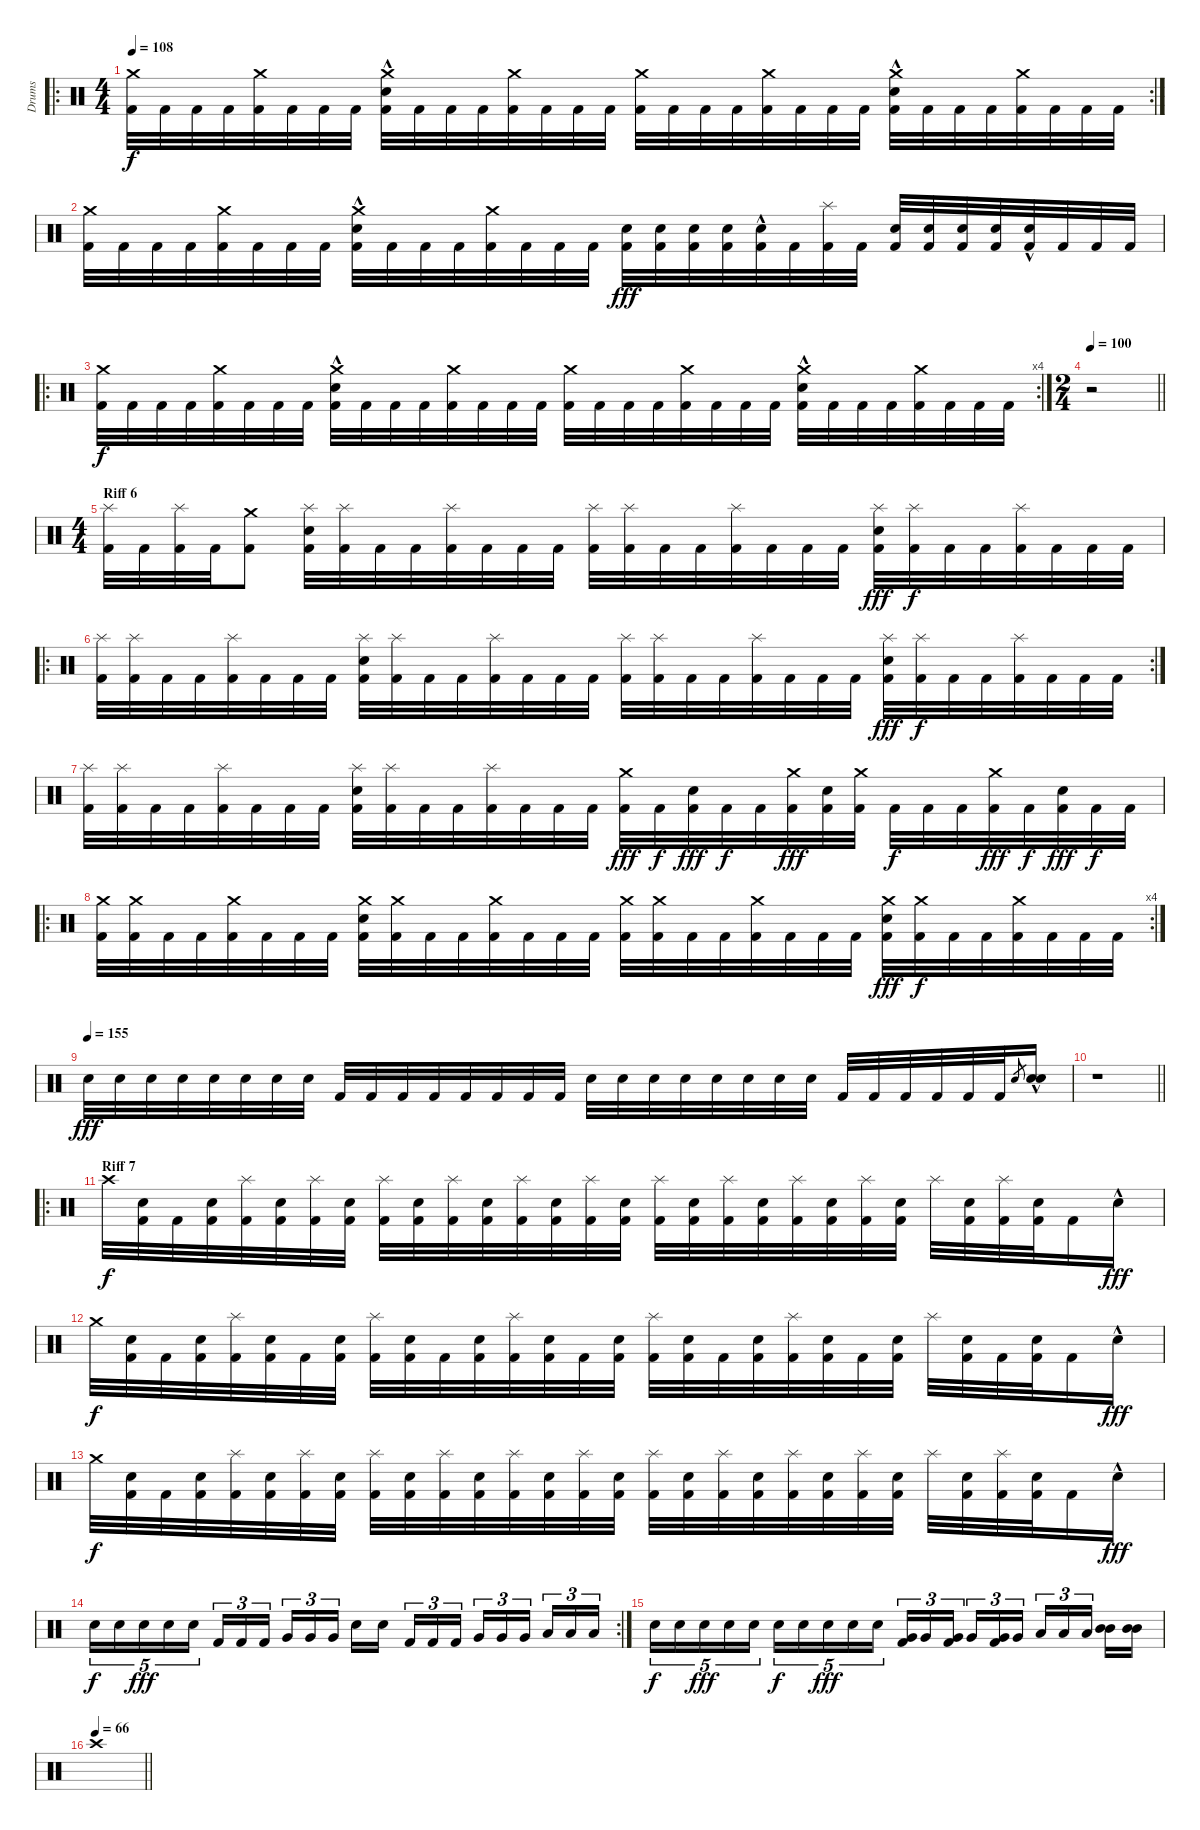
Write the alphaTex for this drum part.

\track ("Drums" "Drums") {instrument percussion}
\staff {score}
\articulation defaults
\ro
\rc 2
\ts (4 4)
\tempo 108
\clef neutral
\ks c
("Crash medium (hit)" "Kick (hit) 2").32{dy f} "Kick (hit) 2".32 "Kick (hit) 2".32 "Kick (hit) 2".32 ("Crash medium (hit)" "Kick (hit) 2").32 "Kick (hit) 2".32 "Kick (hit) 2".32 "Kick (hit) 2".32 ("Crash medium (hit)" "Electric Snare (hit)"{hac} "Kick (hit) 2").32 "Kick (hit) 2".32 "Kick (hit) 2".32 "Kick (hit) 2".32 ("Crash medium (hit)" "Kick (hit) 2").32 "Kick (hit) 2".32 "Kick (hit) 2".32 "Kick (hit) 2".32 ("Crash medium (hit)" "Kick (hit) 2").32 "Kick (hit) 2".32 "Kick (hit) 2".32 "Kick (hit) 2".32 ("Crash medium (hit)" "Kick (hit) 2").32 "Kick (hit) 2".32 "Kick (hit) 2".32 "Kick (hit) 2".32 ("Crash medium (hit)" "Electric Snare (hit)"{hac} "Kick (hit) 2").32 "Kick (hit) 2".32 "Kick (hit) 2".32 "Kick (hit) 2".32 ("Crash medium (hit)" "Kick (hit) 2").32 "Kick (hit) 2".32 "Kick (hit) 2".32 "Kick (hit) 2".32 |
("Crash medium (hit)" "Kick (hit) 2").32 "Kick (hit) 2".32 "Kick (hit) 2".32 "Kick (hit) 2".32 ("Crash medium (hit)" "Kick (hit) 2").32 "Kick (hit) 2".32 "Kick (hit) 2".32 "Kick (hit) 2".32 ("Crash medium (hit)" "Electric Snare (hit)"{hac} "Kick (hit) 2").32 "Kick (hit) 2".32 "Kick (hit) 2".32 "Kick (hit) 2".32 ("Crash medium (hit)" "Kick (hit) 2").32 "Kick (hit) 2".32 "Kick (hit) 2".32 "Kick (hit) 2".32 ("Electric Snare (hit)" "Kick (hit) 2").32{dy fff} ("Electric Snare (hit)" "Kick (hit) 2").32 ("Electric Snare (hit)" "Kick (hit) 2").32 ("Electric Snare (hit)" "Kick (hit) 2").32 ("Electric Snare (hit)"{hac} "Kick (hit) 2").32 "Kick (hit) 2".32 ("Splash (hit)" "Kick (hit) 2").32 "Kick (hit) 2".32 ("Electric Snare (hit)" "Kick (hit) 2").32 ("Electric Snare (hit)" "Kick (hit) 2").32 ("Electric Snare (hit)" "Kick (hit) 2").32 ("Electric Snare (hit)" "Kick (hit) 2").32 ("Electric Snare (hit)"{hac} "Kick (hit) 2").32 "Kick (hit) 2".32 "Kick (hit) 2".32 "Kick (hit) 2".32 |
\ro
\rc 4
("Crash medium (hit)" "Kick (hit) 2").32{dy f} "Kick (hit) 2".32 "Kick (hit) 2".32 "Kick (hit) 2".32 ("Crash medium (hit)" "Kick (hit) 2").32 "Kick (hit) 2".32 "Kick (hit) 2".32 "Kick (hit) 2".32 ("Crash medium (hit)" "Electric Snare (hit)"{hac} "Kick (hit) 2").32 "Kick (hit) 2".32 "Kick (hit) 2".32 "Kick (hit) 2".32 ("Crash medium (hit)" "Kick (hit) 2").32 "Kick (hit) 2".32 "Kick (hit) 2".32 "Kick (hit) 2".32 ("Crash medium (hit)" "Kick (hit) 2").32 "Kick (hit) 2".32 "Kick (hit) 2".32 "Kick (hit) 2".32 ("Crash medium (hit)" "Kick (hit) 2").32 "Kick (hit) 2".32 "Kick (hit) 2".32 "Kick (hit) 2".32 ("Crash medium (hit)" "Electric Snare (hit)"{hac} "Kick (hit) 2").32 "Kick (hit) 2".32 "Kick (hit) 2".32 "Kick (hit) 2".32 ("Crash medium (hit)" "Kick (hit) 2").32 "Kick (hit) 2".32 "Kick (hit) 2".32 "Kick (hit) 2".32 |
\ts (2 4)
\tempo 100
\barLineRight lightlight
r.2 |
\ts (4 4)
\section ("" "Riff 6")
("Splash (hit)" "Kick (hit) 2").32 "Kick (hit) 2".32 ("Splash (hit)" "Kick (hit) 2").32 "Kick (hit) 2".32 ("Crash medium (hit)" "Kick (hit) 2").8 ("Splash (hit)" "Electric Snare (hit)" "Kick (hit) 2").32 ("Splash (hit)" "Kick (hit) 2").32 "Kick (hit) 2".32 "Kick (hit) 2".32 ("Splash (hit)" "Kick (hit) 2").32 "Kick (hit) 2".32 "Kick (hit) 2".32 "Kick (hit) 2".32 ("Splash (hit)" "Kick (hit) 2").32 ("Splash (hit)" "Kick (hit) 2").32 "Kick (hit) 2".32 "Kick (hit) 2".32 ("Splash (hit)" "Kick (hit) 2").32 "Kick (hit) 2".32 "Kick (hit) 2".32 "Kick (hit) 2".32 ("Splash (hit)" "Electric Snare (hit)" "Kick (hit) 2").32{dy fff} ("Splash (hit)" "Kick (hit) 2").32{dy f} "Kick (hit) 2".32 "Kick (hit) 2".32 ("Splash (hit)" "Kick (hit) 2").32 "Kick (hit) 2".32 "Kick (hit) 2".32 "Kick (hit) 2".32 |
\ro
\rc 2
("Splash (hit)" "Kick (hit) 2").32 ("Splash (hit)" "Kick (hit) 2").32 "Kick (hit) 2".32 "Kick (hit) 2".32 ("Splash (hit)" "Kick (hit) 2").32 "Kick (hit) 2".32 "Kick (hit) 2".32 "Kick (hit) 2".32 ("Splash (hit)" "Electric Snare (hit)" "Kick (hit) 2").32 ("Splash (hit)" "Kick (hit) 2").32 "Kick (hit) 2".32 "Kick (hit) 2".32 ("Splash (hit)" "Kick (hit) 2").32 "Kick (hit) 2".32 "Kick (hit) 2".32 "Kick (hit) 2".32 ("Splash (hit)" "Kick (hit) 2").32 ("Splash (hit)" "Kick (hit) 2").32 "Kick (hit) 2".32 "Kick (hit) 2".32 ("Splash (hit)" "Kick (hit) 2").32 "Kick (hit) 2".32 "Kick (hit) 2".32 "Kick (hit) 2".32 ("Splash (hit)" "Electric Snare (hit)" "Kick (hit) 2").32{dy fff} ("Splash (hit)" "Kick (hit) 2").32{dy f} "Kick (hit) 2".32 "Kick (hit) 2".32 ("Splash (hit)" "Kick (hit) 2").32 "Kick (hit) 2".32 "Kick (hit) 2".32 "Kick (hit) 2".32 |
("Splash (hit)" "Kick (hit) 2").32 ("Splash (hit)" "Kick (hit) 2").32 "Kick (hit) 2".32 "Kick (hit) 2".32 ("Splash (hit)" "Kick (hit) 2").32 "Kick (hit) 2".32 "Kick (hit) 2".32 "Kick (hit) 2".32 ("Splash (hit)" "Electric Snare (hit)" "Kick (hit) 2").32 ("Splash (hit)" "Kick (hit) 2").32 "Kick (hit) 2".32 "Kick (hit) 2".32 ("Splash (hit)" "Kick (hit) 2").32 "Kick (hit) 2".32 "Kick (hit) 2".32 "Kick (hit) 2".32 ("Crash medium (hit)" "Kick (hit) 2").32{dy fff} "Kick (hit) 2".32{dy f} ("Electric Snare (hit)" "Kick (hit) 2").32{dy fff} "Kick (hit) 2".32{dy f} "Kick (hit) 2".32 ("Crash medium (hit)" "Kick (hit) 2").32{dy fff} ("Electric Snare (hit)" "Kick (hit) 2").32 ("Crash medium (hit)" "Kick (hit) 2").32 "Kick (hit) 2".32{dy f} "Kick (hit) 2".32 "Kick (hit) 2".32 ("Crash medium (hit)" "Kick (hit) 2").32{dy fff} "Kick (hit) 2".32{dy f} ("Electric Snare (hit)" "Kick (hit) 2").32{dy fff} "Kick (hit) 2".32{dy f} "Kick (hit) 2".32 |
\ro
\rc 4
("Crash medium (hit)" "Kick (hit) 2").32 ("Crash medium (hit)" "Kick (hit) 2").32 "Kick (hit) 2".32 "Kick (hit) 2".32 ("Crash medium (hit)" "Kick (hit) 2").32 "Kick (hit) 2".32 "Kick (hit) 2".32 "Kick (hit) 2".32 ("Crash medium (hit)" "Electric Snare (hit)" "Kick (hit) 2").32 ("Crash medium (hit)" "Kick (hit) 2").32 "Kick (hit) 2".32 "Kick (hit) 2".32 ("Crash medium (hit)" "Kick (hit) 2").32 "Kick (hit) 2".32 "Kick (hit) 2".32 "Kick (hit) 2".32 ("Crash medium (hit)" "Kick (hit) 2").32 ("Crash medium (hit)" "Kick (hit) 2").32 "Kick (hit) 2".32 "Kick (hit) 2".32 ("Crash medium (hit)" "Kick (hit) 2").32 "Kick (hit) 2".32 "Kick (hit) 2".32 "Kick (hit) 2".32 ("Crash medium (hit)" "Electric Snare (hit)" "Kick (hit) 2").32{dy fff} ("Crash medium (hit)" "Kick (hit) 2").32{dy f} "Kick (hit) 2".32 "Kick (hit) 2".32 ("Crash medium (hit)" "Kick (hit) 2").32 "Kick (hit) 2".32 "Kick (hit) 2".32 "Kick (hit) 2".32 |
\tempo (155)
"Electric Snare (hit)".32{dy fff} "Electric Snare (hit)".32 "Electric Snare (hit)".32 "Electric Snare (hit)".32 "Electric Snare (hit)".32 "Electric Snare (hit)".32 "Electric Snare (hit)".32 "Electric Snare (hit)".32 "Kick (hit) 2".32 "Kick (hit) 2".32 "Kick (hit) 2".32 "Kick (hit) 2".32 "Kick (hit) 2".32 "Kick (hit) 2".32 "Kick (hit) 2".32 "Kick (hit) 2".32 "Electric Snare (hit)".32 "Electric Snare (hit)".32 "Electric Snare (hit)".32 "Electric Snare (hit)".32 "Electric Snare (hit)".32 "Electric Snare (hit)".32 "Electric Snare (hit)".32 "Electric Snare (hit)".32 "Kick (hit) 2".32 "Kick (hit) 2".32 "Kick (hit) 2".32 "Kick (hit) 2".32 "Kick (hit) 2".32 "Kick (hit) 2".32 "Electric Snare (hit)".8{gr} ("Electric Snare (hit)" "Electric Snare (hit)"{hac}).16 |
\barLineRight lightlight
r.1 |
\ro
\section ("" "Riff 7")
"Crash high (hit)".32{dy f} ("Electric Snare (hit)" "Kick (hit) 2").32 "Kick (hit) 2".32 ("Electric Snare (hit)" "Kick (hit) 2").32 ("Splash (hit)" "Kick (hit) 2").32 ("Electric Snare (hit)" "Kick (hit) 2").32 ("Splash (hit)" "Kick (hit) 2").32 ("Electric Snare (hit)" "Kick (hit) 2").32 ("Splash (hit)" "Kick (hit) 2").32 ("Electric Snare (hit)" "Kick (hit) 2").32 ("Splash (hit)" "Kick (hit) 2").32 ("Electric Snare (hit)" "Kick (hit) 2").32 ("Splash (hit)" "Kick (hit) 2").32 ("Electric Snare (hit)" "Kick (hit) 2").32 ("Splash (hit)" "Kick (hit) 2").32 ("Electric Snare (hit)" "Kick (hit) 2").32 ("Splash (hit)" "Kick (hit) 2").32 ("Electric Snare (hit)" "Kick (hit) 2").32 ("Splash (hit)" "Kick (hit) 2").32 ("Electric Snare (hit)" "Kick (hit) 2").32 ("Splash (hit)" "Kick (hit) 2").32 ("Electric Snare (hit)" "Kick (hit) 2").32 ("Splash (hit)" "Kick (hit) 2").32 ("Electric Snare (hit)" "Kick (hit) 2").32 "Splash (hit)".32 ("Electric Snare (hit)" "Kick (hit) 2").32 ("Splash (hit)" "Kick (hit) 2").32 ("Electric Snare (hit)" "Kick (hit) 2").32 "Kick (hit) 2".16 "Electric Snare (hit)"{hac}.16{dy fff} |
"Crash medium (hit)".32{dy f} ("Electric Snare (hit)" "Kick (hit) 2").32 "Kick (hit) 2".32 ("Electric Snare (hit)" "Kick (hit) 2").32 ("Splash (hit)" "Kick (hit) 2").32 ("Electric Snare (hit)" "Kick (hit) 2").32 "Kick (hit) 2".32 ("Electric Snare (hit)" "Kick (hit) 2").32 ("Splash (hit)" "Kick (hit) 2").32 ("Electric Snare (hit)" "Kick (hit) 2").32 "Kick (hit) 2".32 ("Electric Snare (hit)" "Kick (hit) 2").32 ("Splash (hit)" "Kick (hit) 2").32 ("Electric Snare (hit)" "Kick (hit) 2").32 "Kick (hit) 2".32 ("Electric Snare (hit)" "Kick (hit) 2").32 ("Splash (hit)" "Kick (hit) 2").32 ("Electric Snare (hit)" "Kick (hit) 2").32 "Kick (hit) 2".32 ("Electric Snare (hit)" "Kick (hit) 2").32 ("Splash (hit)" "Kick (hit) 2").32 ("Electric Snare (hit)" "Kick (hit) 2").32 "Kick (hit) 2".32 ("Electric Snare (hit)" "Kick (hit) 2").32 "Splash (hit)".32 ("Electric Snare (hit)" "Kick (hit) 2").32 "Kick (hit) 2".32 ("Electric Snare (hit)" "Kick (hit) 2").32 "Kick (hit) 2".16 "Electric Snare (hit)"{hac}.16{dy fff} |
"Crash medium (hit)".32{dy f} ("Electric Snare (hit)" "Kick (hit) 2").32 "Kick (hit) 2".32 ("Electric Snare (hit)" "Kick (hit) 2").32 ("Splash (hit)" "Kick (hit) 2").32 ("Electric Snare (hit)" "Kick (hit) 2").32 ("Splash (hit)" "Kick (hit) 2").32 ("Electric Snare (hit)" "Kick (hit) 2").32 ("Splash (hit)" "Kick (hit) 2").32 ("Electric Snare (hit)" "Kick (hit) 2").32 ("Splash (hit)" "Kick (hit) 2").32 ("Electric Snare (hit)" "Kick (hit) 2").32 ("Splash (hit)" "Kick (hit) 2").32 ("Electric Snare (hit)" "Kick (hit) 2").32 ("Splash (hit)" "Kick (hit) 2").32 ("Electric Snare (hit)" "Kick (hit) 2").32 ("Splash (hit)" "Kick (hit) 2").32 ("Electric Snare (hit)" "Kick (hit) 2").32 ("Splash (hit)" "Kick (hit) 2").32 ("Electric Snare (hit)" "Kick (hit) 2").32 ("Splash (hit)" "Kick (hit) 2").32 ("Electric Snare (hit)" "Kick (hit) 2").32 ("Splash (hit)" "Kick (hit) 2").32 ("Electric Snare (hit)" "Kick (hit) 2").32 "Splash (hit)".32 ("Electric Snare (hit)" "Kick (hit) 2").32 ("Splash (hit)" "Kick (hit) 2").32 ("Electric Snare (hit)" "Kick (hit) 2").32 "Kick (hit) 2".16 "Electric Snare (hit)"{hac}.16{dy fff} |
\rc 2 "Electric Snare (hit)".16{tu (5 4) dy f} "Electric Snare (hit)".16{tu (5 4)} "Electric Snare (hit)".16{tu (5 4) dy fff} "Electric Snare (hit)".16{tu (5 4)} "Electric Snare (hit)".16{tu (5 4)} "Kick (hit) 2".16{tu (3 2)} "Kick (hit) 2".16{tu (3 2)} "Kick (hit) 2".16{tu (3 2) beam splitsecondary} "Very Low Tom (hit)".16{tu (3 2)} "Very Low Tom (hit)".16{tu (3 2)} "Very Low Tom (hit)".16{tu (3 2)} "Electric Snare (hit)".16 "Electric Snare (hit)".16{beam splitsecondary} "Kick (hit) 2".16{tu (3 2)} "Kick (hit) 2".16{tu (3 2)} "Kick (hit) 2".16{tu (3 2)} "Very Low Tom (hit)".16{tu (3 2)} "Very Low Tom (hit)".16{tu (3 2)} "Very Low Tom (hit)".16{tu (3 2) beam splitsecondary} "Low Tom (hit)".16{tu (3 2)} "Low Tom (hit)".16{tu (3 2)} "Low Tom (hit)".16{tu (3 2)}
|
"Electric Snare (hit)".16{tu (5 4) dy f} "Electric Snare (hit)".16{tu (5 4)} "Electric Snare (hit)".16{tu (5 4) dy fff} "Electric Snare (hit)".16{tu (5 4)} "Electric Snare (hit)".16{tu (5 4)} "Electric Snare (hit)".16{tu (5 4) dy f} "Electric Snare (hit)".16{tu (5 4)} "Electric Snare (hit)".16{tu (5 4) dy fff} "Electric Snare (hit)".16{tu (5 4)} "Electric Snare (hit)".16{tu (5 4)} ("Very Low Tom (hit)" "Kick (hit) 2").16{tu (3 2)} "Very Low Tom (hit)".16{tu (3 2)} ("Very Low Tom (hit)" "Kick (hit) 2").16{tu (3 2) beam splitsecondary} "Very Low Tom (hit)".16{tu (3 2)} ("Very Low Tom (hit)" "Kick (hit) 2").16{tu (3 2)} "Very Low Tom (hit)".16{tu (3 2)} "Low Tom (hit)".16{tu (3 2)} "Low Tom (hit)".16{tu (3 2)} "Low Tom (hit)".16{tu (3 2) beam splitsecondary} ("Mid Tom (hit)" "Mid Tom (hit)").16 ("Mid Tom (hit)" "Mid Tom (hit)").16 |
\tempo 66
\barLineRight lightlight "Crash high (hit)".1
